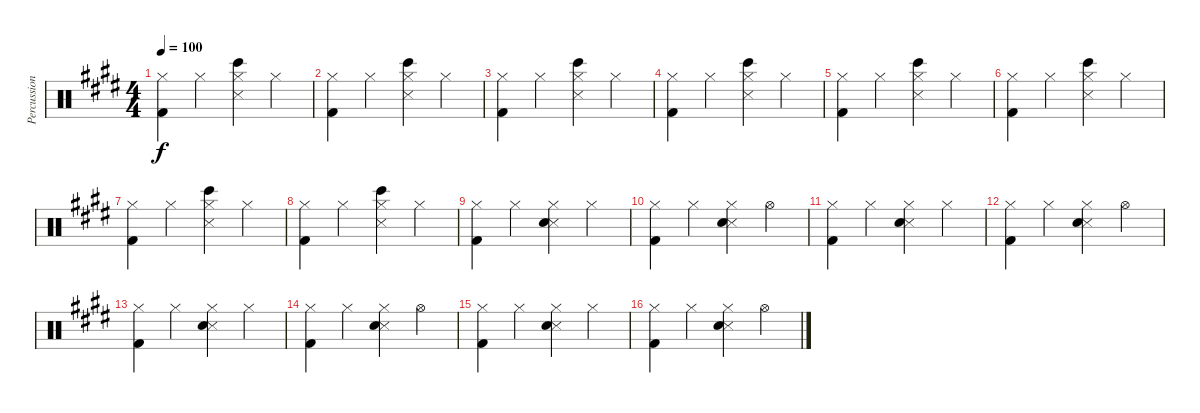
\track ("Percussion" "Percussion") {instrument percussion}
\staff {score}
\articulation defaults
\ts (4 4)
\tempo 100
\clef neutral
\ks e
("Hi-Hat (closed)" "Kick (hit) 2").4{dy f} "Hi-Hat (closed)".4 ("Hi-Hat (closed)" "Snare (side stick) 3" "Bongo High (hit)").4 "Hi-Hat (closed)".4 |
("Hi-Hat (closed)" "Kick (hit) 2").4 "Hi-Hat (closed)".4 ("Hi-Hat (closed)" "Snare (side stick) 3" "Bongo High (hit)").4 "Hi-Hat (closed)".4 |
("Hi-Hat (closed)" "Kick (hit) 2").4 "Hi-Hat (closed)".4 ("Hi-Hat (closed)" "Snare (side stick) 3" "Bongo High (hit)").4 "Hi-Hat (closed)".4 |
("Hi-Hat (closed)" "Kick (hit) 2").4 "Hi-Hat (closed)".4 ("Hi-Hat (closed)" "Snare (side stick) 3" "Bongo High (hit)").4 "Hi-Hat (closed)".4 |
("Hi-Hat (closed)" "Kick (hit) 2").4 "Hi-Hat (closed)".4 ("Hi-Hat (closed)" "Snare (side stick) 3" "Bongo High (hit)").4 "Hi-Hat (closed)".4 |
("Hi-Hat (closed)" "Kick (hit) 2").4 "Hi-Hat (closed)".4 ("Hi-Hat (closed)" "Snare (side stick) 3" "Bongo High (hit)").4 "Hi-Hat (closed)".4 |
("Hi-Hat (closed)" "Kick (hit) 2").4 "Hi-Hat (closed)".4 ("Hi-Hat (closed)" "Snare (side stick) 3" "Bongo High (hit)").4 "Hi-Hat (closed)".4 |
("Hi-Hat (closed)" "Kick (hit) 2").4 "Hi-Hat (closed)".4 ("Hi-Hat (closed)" "Snare (side stick) 3" "Bongo High (hit)").4 "Hi-Hat (closed)".4 |
("Hi-Hat (closed)" "Kick (hit) 2").4 "Hi-Hat (closed)".4 ("Hi-Hat (closed)" "Snare (side stick) 3" "Snare (hit) 2").4 "Hi-Hat (closed)".4 |
("Hi-Hat (closed)" "Kick (hit) 2").4 "Hi-Hat (closed)".4 ("Hi-Hat (closed)" "Snare (side stick) 3" "Snare (hit) 2").4 "Hi-Hat (open)".4 |
("Hi-Hat (closed)" "Kick (hit) 2").4 "Hi-Hat (closed)".4 ("Hi-Hat (closed)" "Snare (side stick) 3" "Snare (hit) 2").4 "Hi-Hat (closed)".4 |
("Hi-Hat (closed)" "Kick (hit) 2").4 "Hi-Hat (closed)".4 ("Hi-Hat (closed)" "Snare (side stick) 3" "Snare (hit) 2").4 "Hi-Hat (open)".4 |
("Hi-Hat (closed)" "Kick (hit) 2").4 "Hi-Hat (closed)".4 ("Hi-Hat (closed)" "Snare (side stick) 3" "Snare (hit) 2").4 "Hi-Hat (closed)".4 |
("Hi-Hat (closed)" "Kick (hit) 2").4 "Hi-Hat (closed)".4 ("Hi-Hat (closed)" "Snare (side stick) 3" "Snare (hit) 2").4 "Hi-Hat (open)".4 |
("Hi-Hat (closed)" "Kick (hit) 2").4 "Hi-Hat (closed)".4 ("Hi-Hat (closed)" "Snare (side stick) 3" "Snare (hit) 2").4 "Hi-Hat (closed)".4 |
("Hi-Hat (closed)" "Kick (hit) 2").4 "Hi-Hat (closed)".4 ("Hi-Hat (closed)" "Snare (side stick) 3" "Snare (hit) 2").4 "Hi-Hat (open)".4
